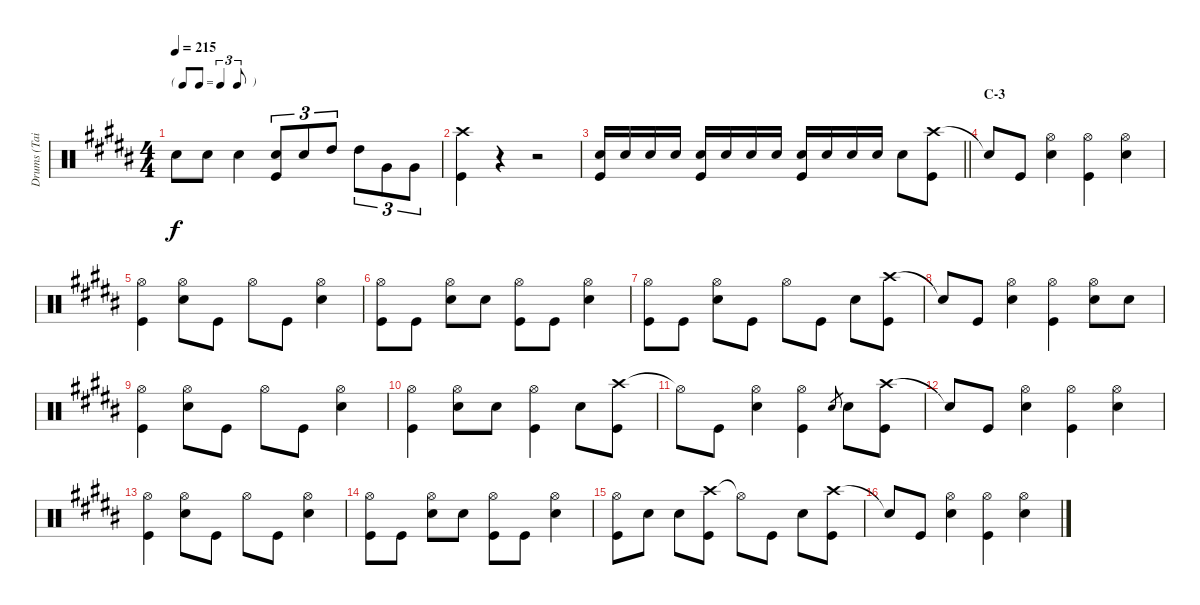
\track ("Drums (Tainaka Ritsu)" "Drums (Tai") {instrument percussion}
\staff {score}
\articulation defaults
\ts (4 4)
\tf triplet8th
\tempo 215
\clef neutral
\ks b "Snare (hit)"{t}.8{dy f} "Snare (hit) 2".8 "Snare (hit) 2".4
("Snare (hit) 2" "Kick (hit)").8{tu (3 2)} "Snare (hit) 2".8{tu (3 2)} "High Tom (hit)".8{tu (3 2)} "High Tom (hit)".8{tu (3 2)} "Very Low Tom (hit)".8{tu (3 2)} "Very Low Tom (hit)".8{tu (3 2)} |
("Crash high (hit)" "Kick (hit)").4 r.4 r.2 |
\barLineRight lightlight
("Snare (hit) 2" "Kick (hit)").16 "Snare (hit) 2".16 "Snare (hit) 2".16 "Snare (hit) 2".16 ("Snare (hit) 2" "Kick (hit)").16 "Snare (hit) 2".16 "Snare (hit) 2".16 "Snare (hit) 2".16 ("Snare (hit) 2" "Kick (hit)").16 "Snare (hit) 2".16 "Snare (hit) 2".16 "Snare (hit) 2".16 "Snare (hit) 2".8 ("Crash high (hit)" "Kick (hit)").8 |
\section ("" "C-3")
"Snare (hit)"{t}.8 "Kick (hit)".8 ("Hi-Hat (open)" "Snare (hit) 2").4 ("Hi-Hat (open)" "Kick (hit)").4 ("Hi-Hat (open)" "Snare (hit) 2").4 |
("Hi-Hat (open)" "Kick (hit)").4 ("Hi-Hat (open)" "Snare (hit) 2").8 "Kick (hit)".8 "Hi-Hat (open)".8 "Kick (hit)".8 ("Hi-Hat (open)" "Snare (hit) 2").4 |
("Hi-Hat (open)" "Kick (hit)").8 "Kick (hit)".8 ("Hi-Hat (open)" "Snare (hit) 2").8 "Snare (hit) 2".8 ("Hi-Hat (open)" "Kick (hit)").8 "Kick (hit)".8 ("Hi-Hat (open)" "Snare (hit) 2").4 |
("Hi-Hat (open)" "Kick (hit)").8 "Kick (hit)".8 ("Hi-Hat (open)" "Snare (hit) 2").8 "Kick (hit)".8 "Hi-Hat (open)".8 "Kick (hit)".8 "Snare (hit) 2".8 ("Crash high (hit)" "Kick (hit)").8 |
"Snare (hit)"{t}.8 "Kick (hit)".8 ("Hi-Hat (open)" "Snare (hit) 2").4 ("Hi-Hat (open)" "Kick (hit)").4 ("Hi-Hat (open)" "Snare (hit) 2").8 "Snare (hit) 2".8 |
("Hi-Hat (open)" "Kick (hit)").4 ("Hi-Hat (open)" "Snare (hit) 2").8 "Kick (hit)".8 "Hi-Hat (open)".8 "Kick (hit)".8 ("Hi-Hat (open)" "Snare (hit) 2").4 |
("Hi-Hat (open)" "Kick (hit)").4 ("Hi-Hat (open)" "Snare (hit) 2").8 "Snare (hit) 2".8 ("Hi-Hat (open)" "Kick (hit)").4 "Snare (hit) 2".8 ("Crash high (hit)" "Kick (hit)").8 |
"Hi-Hat (open)"{t}.8 "Kick (hit)".8 ("Hi-Hat (open)" "Snare (hit) 2").4 ("Hi-Hat (open)" "Kick (hit)").4 "Snare (hit) 2".8{gr} "Snare (hit) 2".8 ("Crash high (hit)" "Kick (hit)").8 |
"Snare (hit)"{t}.8 "Kick (hit)".8 ("Hi-Hat (open)" "Snare (hit) 2").4 ("Hi-Hat (open)" "Kick (hit)").4 ("Hi-Hat (open)" "Snare (hit) 2").4 |
("Hi-Hat (open)" "Kick (hit)").4 ("Hi-Hat (open)" "Snare (hit) 2").8 "Kick (hit)".8 "Hi-Hat (open)".8 "Kick (hit)".8 ("Hi-Hat (open)" "Snare (hit) 2").4 |
("Hi-Hat (open)" "Kick (hit)").8 "Kick (hit)".8 ("Hi-Hat (open)" "Snare (hit) 2").8 "Snare (hit) 2".8 ("Hi-Hat (open)" "Kick (hit)").8 "Kick (hit)".8 ("Hi-Hat (open)" "Snare (hit) 2").4 |
("Hi-Hat (open)" "Kick (hit)").8 "Snare (hit) 2".8 "Snare (hit) 2".8 ("Crash high (hit)" "Kick (hit)").8 "Hi-Hat (open)"{t}.8 "Kick (hit)".8 "Snare (hit) 2".8 ("Crash high (hit)" "Kick (hit)").8 |
"Snare (hit)"{t}.8 "Kick (hit)".8 ("Hi-Hat (open)" "Snare (hit) 2").4 ("Hi-Hat (open)" "Kick (hit)").4 ("Hi-Hat (open)" "Snare (hit) 2").4
